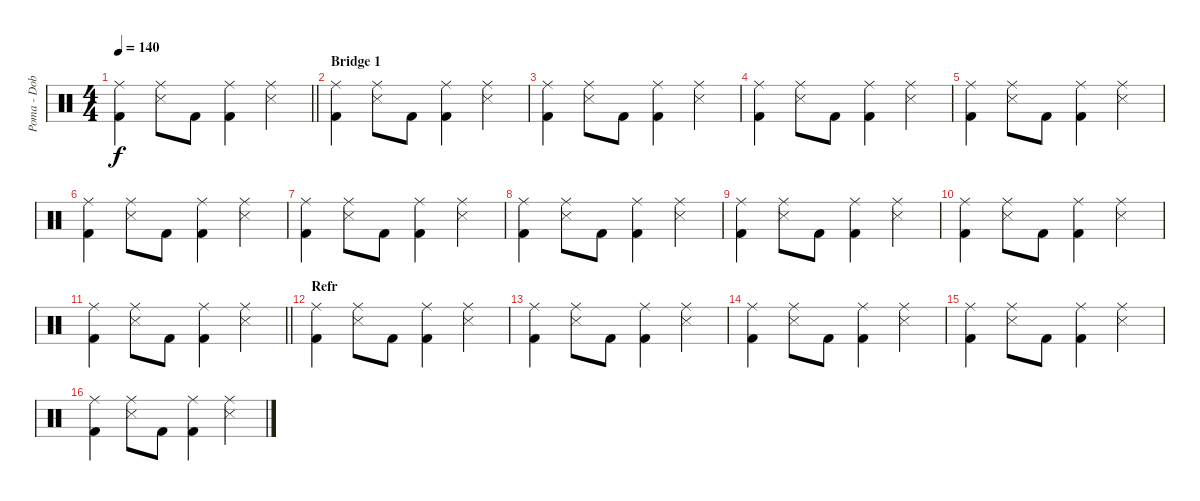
\track ("Poma - Dob" "Poma - Dob") {instrument percussion}
\staff {score}
\articulation defaults
\ts (4 4)
\tempo 140
\clef neutral
\barLineRight lightlight
\ks c
("Ride (middle)" "Kick (hit) 2").4{dy f} ("Ride (middle)" "Snare (side stick) 3").8 "Kick (hit) 2".8 ("Ride (middle)" "Kick (hit) 2").4 ("Ride (middle)" "Snare (side stick) 3").4 |
\section ("" "Bridge 1")
("Ride (middle)" "Kick (hit) 2").4 ("Ride (middle)" "Snare (side stick) 3").8 "Kick (hit) 2".8 ("Ride (middle)" "Kick (hit) 2").4 ("Ride (middle)" "Snare (side stick) 3").4 |
("Ride (middle)" "Kick (hit) 2").4 ("Ride (middle)" "Snare (side stick) 3").8 "Kick (hit) 2".8 ("Ride (middle)" "Kick (hit) 2").4 ("Ride (middle)" "Snare (side stick) 3").4 |
("Ride (middle)" "Kick (hit) 2").4 ("Ride (middle)" "Snare (side stick) 3").8 "Kick (hit) 2".8 ("Ride (middle)" "Kick (hit) 2").4 ("Ride (middle)" "Snare (side stick) 3").4 |
("Ride (middle)" "Kick (hit) 2").4 ("Ride (middle)" "Snare (side stick) 3").8 "Kick (hit) 2".8 ("Ride (middle)" "Kick (hit) 2").4 ("Ride (middle)" "Snare (side stick) 3").4 |
("Ride (middle)" "Kick (hit) 2").4 ("Ride (middle)" "Snare (side stick) 3").8 "Kick (hit) 2".8 ("Ride (middle)" "Kick (hit) 2").4 ("Ride (middle)" "Snare (side stick) 3").4 |
("Ride (middle)" "Kick (hit) 2").4 ("Ride (middle)" "Snare (side stick) 3").8 "Kick (hit) 2".8 ("Ride (middle)" "Kick (hit) 2").4 ("Ride (middle)" "Snare (side stick) 3").4 |
("Ride (middle)" "Kick (hit) 2").4 ("Ride (middle)" "Snare (side stick) 3").8 "Kick (hit) 2".8 ("Ride (middle)" "Kick (hit) 2").4 ("Ride (middle)" "Snare (side stick) 3").4 |
("Ride (middle)" "Kick (hit) 2").4 ("Ride (middle)" "Snare (side stick) 3").8 "Kick (hit) 2".8 ("Ride (middle)" "Kick (hit) 2").4 ("Ride (middle)" "Snare (side stick) 3").4 |
("Ride (middle)" "Kick (hit) 2").4 ("Ride (middle)" "Snare (side stick) 3").8 "Kick (hit) 2".8 ("Ride (middle)" "Kick (hit) 2").4 ("Ride (middle)" "Snare (side stick) 3").4 |
\barLineRight lightlight
("Ride (middle)" "Kick (hit) 2").4 ("Ride (middle)" "Snare (side stick) 3").8 "Kick (hit) 2".8 ("Ride (middle)" "Kick (hit) 2").4 ("Ride (middle)" "Snare (side stick) 3").4 |
\section ("" "Refr")
("Ride (middle)" "Kick (hit) 2").4 ("Ride (middle)" "Snare (side stick) 3").8 "Kick (hit) 2".8 ("Ride (middle)" "Kick (hit) 2").4 ("Ride (middle)" "Snare (side stick) 3").4 |
("Ride (middle)" "Kick (hit) 2").4 ("Ride (middle)" "Snare (side stick) 3").8 "Kick (hit) 2".8 ("Ride (middle)" "Kick (hit) 2").4 ("Ride (middle)" "Snare (side stick) 3").4 |
("Ride (middle)" "Kick (hit) 2").4 ("Ride (middle)" "Snare (side stick) 3").8 "Kick (hit) 2".8 ("Ride (middle)" "Kick (hit) 2").4 ("Ride (middle)" "Snare (side stick) 3").4 |
("Ride (middle)" "Kick (hit) 2").4 ("Ride (middle)" "Snare (side stick) 3").8 "Kick (hit) 2".8 ("Ride (middle)" "Kick (hit) 2").4 ("Ride (middle)" "Snare (side stick) 3").4 |
("Ride (middle)" "Kick (hit) 2").4 ("Ride (middle)" "Snare (side stick) 3").8 "Kick (hit) 2".8 ("Ride (middle)" "Kick (hit) 2").4 ("Ride (middle)" "Snare (side stick) 3").4
